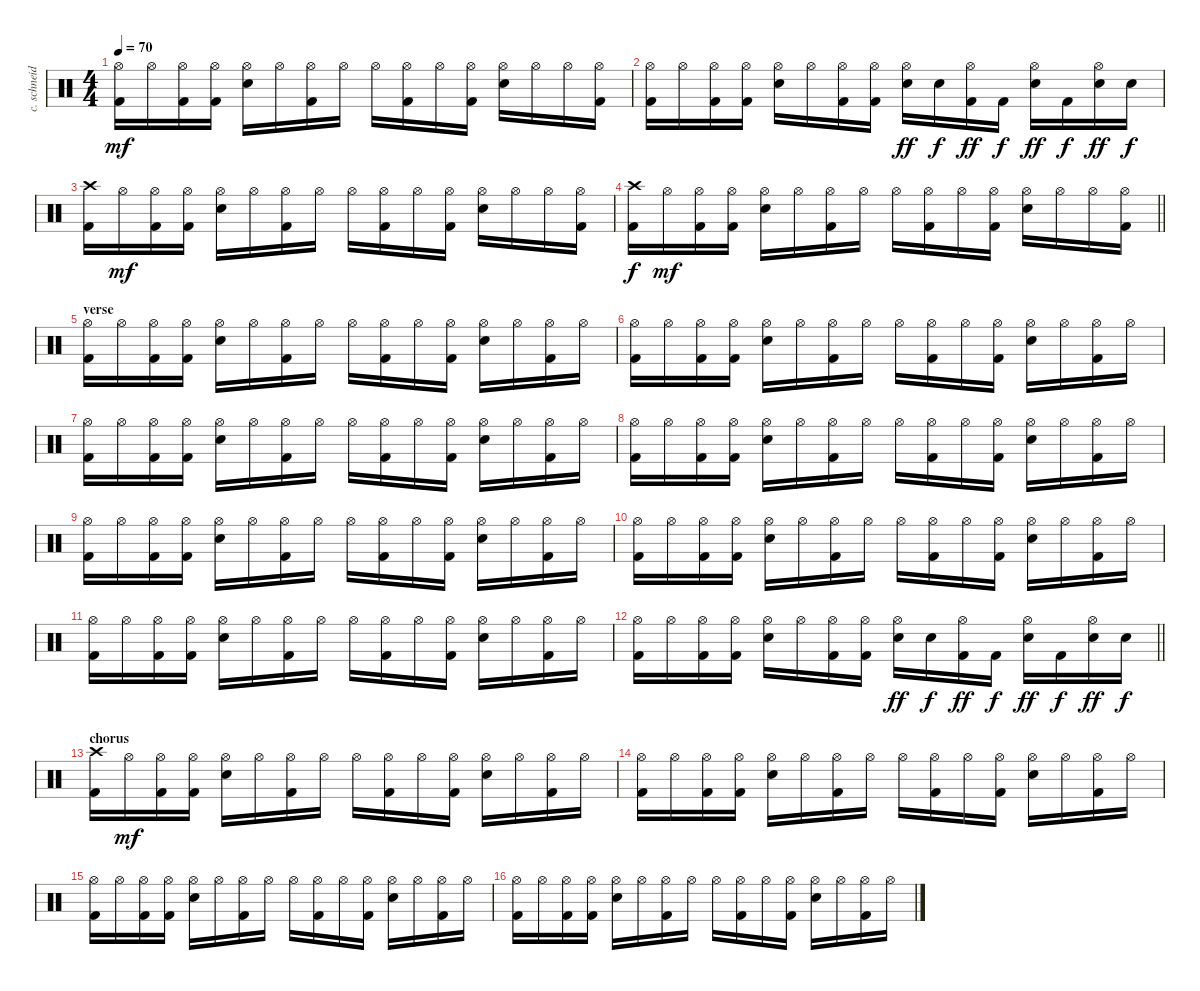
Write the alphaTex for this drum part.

\track ("c. schneider - drums" "c. schneid") {instrument percussion}
\staff {score}
\articulation defaults
\ts (4 4)
\tempo 70
\clef neutral
\ks c
("Hi-Hat (open)" "Kick (hit) 2").16{dy mf} "Hi-Hat (open)".16 ("Hi-Hat (open)" "Kick (hit) 2").16 ("Hi-Hat (open)" "Kick (hit) 2").16 ("Hi-Hat (open)" "Electric Snare (hit)").16 "Hi-Hat (open)".16 ("Hi-Hat (open)" "Kick (hit) 2").16 "Hi-Hat (open)".16 "Hi-Hat (open)".16 ("Hi-Hat (open)" "Kick (hit) 2").16 "Hi-Hat (open)".16 ("Hi-Hat (open)" "Kick (hit) 2").16 ("Hi-Hat (open)" "Electric Snare (hit)").16 "Hi-Hat (open)".16 "Hi-Hat (open)".16 ("Hi-Hat (open)" "Kick (hit) 2").16 |
("Hi-Hat (open)" "Kick (hit) 2").16 "Hi-Hat (open)".16 ("Hi-Hat (open)" "Kick (hit) 2").16 ("Hi-Hat (open)" "Kick (hit) 2").16 ("Hi-Hat (open)" "Electric Snare (hit)").16 "Hi-Hat (open)".16 ("Hi-Hat (open)" "Kick (hit) 2").16 ("Hi-Hat (open)" "Kick (hit) 2").16 ("Hi-Hat (open)" "Electric Snare (hit)").16{dy ff} "Electric Snare (hit)".16{dy f} ("Hi-Hat (open)" "Kick (hit) 2").16{dy ff} "Kick (hit) 2".16{dy f} ("Hi-Hat (open)" "Electric Snare (hit)").16{dy ff} "Kick (hit) 2".16{dy f} ("Hi-Hat (open)" "Electric Snare (hit)").16{dy ff} "Electric Snare (hit)".16{dy f} |
("Crash high (hit)" "Kick (hit) 2").16 "Hi-Hat (open)".16{dy mf} ("Hi-Hat (open)" "Kick (hit) 2").16 ("Hi-Hat (open)" "Kick (hit) 2").16 ("Hi-Hat (open)" "Electric Snare (hit)").16 "Hi-Hat (open)".16 ("Hi-Hat (open)" "Kick (hit) 2").16 "Hi-Hat (open)".16 "Hi-Hat (open)".16 ("Hi-Hat (open)" "Kick (hit) 2").16 "Hi-Hat (open)".16 ("Hi-Hat (open)" "Kick (hit) 2").16 ("Hi-Hat (open)" "Electric Snare (hit)").16 "Hi-Hat (open)".16 "Hi-Hat (open)".16 ("Hi-Hat (open)" "Kick (hit) 2").16 |
\barLineRight lightlight
("Crash high (hit)" "Kick (hit) 2").16{dy f} "Hi-Hat (open)".16{dy mf} ("Hi-Hat (open)" "Kick (hit) 2").16 ("Hi-Hat (open)" "Kick (hit) 2").16 ("Hi-Hat (open)" "Electric Snare (hit)").16 "Hi-Hat (open)".16 ("Hi-Hat (open)" "Kick (hit) 2").16 "Hi-Hat (open)".16 "Hi-Hat (open)".16 ("Hi-Hat (open)" "Kick (hit) 2").16 "Hi-Hat (open)".16 ("Hi-Hat (open)" "Kick (hit) 2").16 ("Hi-Hat (open)" "Electric Snare (hit)").16 "Hi-Hat (open)".16 "Hi-Hat (open)".16 ("Hi-Hat (open)" "Kick (hit) 2").16 |
\section ("" "verse")
("Hi-Hat (open)" "Kick (hit) 2").16 "Hi-Hat (open)".16 ("Hi-Hat (open)" "Kick (hit) 2").16 ("Hi-Hat (open)" "Kick (hit) 2").16 ("Hi-Hat (open)" "Electric Snare (hit)").16 "Hi-Hat (open)".16 ("Hi-Hat (open)" "Kick (hit) 2").16 "Hi-Hat (open)".16 "Hi-Hat (open)".16 ("Hi-Hat (open)" "Kick (hit) 2").16 "Hi-Hat (open)".16 ("Hi-Hat (open)" "Kick (hit) 2").16 ("Hi-Hat (open)" "Electric Snare (hit)").16 "Hi-Hat (open)".16 ("Hi-Hat (open)" "Kick (hit) 2").16 "Hi-Hat (open)".16 |
("Hi-Hat (open)" "Kick (hit) 2").16 "Hi-Hat (open)".16 ("Hi-Hat (open)" "Kick (hit) 2").16 ("Hi-Hat (open)" "Kick (hit) 2").16 ("Hi-Hat (open)" "Electric Snare (hit)").16 "Hi-Hat (open)".16 ("Hi-Hat (open)" "Kick (hit) 2").16 "Hi-Hat (open)".16 "Hi-Hat (open)".16 ("Hi-Hat (open)" "Kick (hit) 2").16 "Hi-Hat (open)".16 ("Hi-Hat (open)" "Kick (hit) 2").16 ("Hi-Hat (open)" "Electric Snare (hit)").16 "Hi-Hat (open)".16 ("Hi-Hat (open)" "Kick (hit) 2").16 "Hi-Hat (open)".16 |
("Hi-Hat (open)" "Kick (hit) 2").16 "Hi-Hat (open)".16 ("Hi-Hat (open)" "Kick (hit) 2").16 ("Hi-Hat (open)" "Kick (hit) 2").16 ("Hi-Hat (open)" "Electric Snare (hit)").16 "Hi-Hat (open)".16 ("Hi-Hat (open)" "Kick (hit) 2").16 "Hi-Hat (open)".16 "Hi-Hat (open)".16 ("Hi-Hat (open)" "Kick (hit) 2").16 "Hi-Hat (open)".16 ("Hi-Hat (open)" "Kick (hit) 2").16 ("Hi-Hat (open)" "Electric Snare (hit)").16 "Hi-Hat (open)".16 ("Hi-Hat (open)" "Kick (hit) 2").16 "Hi-Hat (open)".16 |
("Hi-Hat (open)" "Kick (hit) 2").16 "Hi-Hat (open)".16 ("Hi-Hat (open)" "Kick (hit) 2").16 ("Hi-Hat (open)" "Kick (hit) 2").16 ("Hi-Hat (open)" "Electric Snare (hit)").16 "Hi-Hat (open)".16 ("Hi-Hat (open)" "Kick (hit) 2").16 "Hi-Hat (open)".16 "Hi-Hat (open)".16 ("Hi-Hat (open)" "Kick (hit) 2").16 "Hi-Hat (open)".16 ("Hi-Hat (open)" "Kick (hit) 2").16 ("Hi-Hat (open)" "Electric Snare (hit)").16 "Hi-Hat (open)".16 ("Hi-Hat (open)" "Kick (hit) 2").16 "Hi-Hat (open)".16 |
("Hi-Hat (open)" "Kick (hit) 2").16 "Hi-Hat (open)".16 ("Hi-Hat (open)" "Kick (hit) 2").16 ("Hi-Hat (open)" "Kick (hit) 2").16 ("Hi-Hat (open)" "Electric Snare (hit)").16 "Hi-Hat (open)".16 ("Hi-Hat (open)" "Kick (hit) 2").16 "Hi-Hat (open)".16 "Hi-Hat (open)".16 ("Hi-Hat (open)" "Kick (hit) 2").16 "Hi-Hat (open)".16 ("Hi-Hat (open)" "Kick (hit) 2").16 ("Hi-Hat (open)" "Electric Snare (hit)").16 "Hi-Hat (open)".16 ("Hi-Hat (open)" "Kick (hit) 2").16 "Hi-Hat (open)".16 |
("Hi-Hat (open)" "Kick (hit) 2").16 "Hi-Hat (open)".16 ("Hi-Hat (open)" "Kick (hit) 2").16 ("Hi-Hat (open)" "Kick (hit) 2").16 ("Hi-Hat (open)" "Electric Snare (hit)").16 "Hi-Hat (open)".16 ("Hi-Hat (open)" "Kick (hit) 2").16 "Hi-Hat (open)".16 "Hi-Hat (open)".16 ("Hi-Hat (open)" "Kick (hit) 2").16 "Hi-Hat (open)".16 ("Hi-Hat (open)" "Kick (hit) 2").16 ("Hi-Hat (open)" "Electric Snare (hit)").16 "Hi-Hat (open)".16 ("Hi-Hat (open)" "Kick (hit) 2").16 "Hi-Hat (open)".16 |
("Hi-Hat (open)" "Kick (hit) 2").16 "Hi-Hat (open)".16 ("Hi-Hat (open)" "Kick (hit) 2").16 ("Hi-Hat (open)" "Kick (hit) 2").16 ("Hi-Hat (open)" "Electric Snare (hit)").16 "Hi-Hat (open)".16 ("Hi-Hat (open)" "Kick (hit) 2").16 "Hi-Hat (open)".16 "Hi-Hat (open)".16 ("Hi-Hat (open)" "Kick (hit) 2").16 "Hi-Hat (open)".16 ("Hi-Hat (open)" "Kick (hit) 2").16 ("Hi-Hat (open)" "Electric Snare (hit)").16 "Hi-Hat (open)".16 ("Hi-Hat (open)" "Kick (hit) 2").16 "Hi-Hat (open)".16 |
\barLineRight lightlight
("Hi-Hat (open)" "Kick (hit) 2").16 "Hi-Hat (open)".16 ("Hi-Hat (open)" "Kick (hit) 2").16 ("Hi-Hat (open)" "Kick (hit) 2").16 ("Hi-Hat (open)" "Electric Snare (hit)").16 "Hi-Hat (open)".16 ("Hi-Hat (open)" "Kick (hit) 2").16 ("Hi-Hat (open)" "Kick (hit) 2").16 ("Hi-Hat (open)" "Electric Snare (hit)").16{dy ff} "Electric Snare (hit)".16{dy f} ("Hi-Hat (open)" "Kick (hit) 2").16{dy ff} "Kick (hit) 2".16{dy f} ("Hi-Hat (open)" "Electric Snare (hit)").16{dy ff} "Kick (hit) 2".16{dy f} ("Hi-Hat (open)" "Electric Snare (hit)").16{dy ff} "Electric Snare (hit)".16{dy f} |
\section ("" "chorus")
("Crash high (hit)" "Kick (hit) 2").16 "Hi-Hat (open)".16{dy mf} ("Hi-Hat (open)" "Kick (hit) 2").16 ("Hi-Hat (open)" "Kick (hit) 2").16 ("Hi-Hat (open)" "Electric Snare (hit)").16 "Hi-Hat (open)".16 ("Hi-Hat (open)" "Kick (hit) 2").16 "Hi-Hat (open)".16 "Hi-Hat (open)".16 ("Hi-Hat (open)" "Kick (hit) 2").16 "Hi-Hat (open)".16 ("Hi-Hat (open)" "Kick (hit) 2").16 ("Hi-Hat (open)" "Electric Snare (hit)").16 "Hi-Hat (open)".16 ("Hi-Hat (open)" "Kick (hit) 2").16 "Hi-Hat (open)".16 |
("Hi-Hat (open)" "Kick (hit) 2").16 "Hi-Hat (open)".16 ("Hi-Hat (open)" "Kick (hit) 2").16 ("Hi-Hat (open)" "Kick (hit) 2").16 ("Hi-Hat (open)" "Electric Snare (hit)").16 "Hi-Hat (open)".16 ("Hi-Hat (open)" "Kick (hit) 2").16 "Hi-Hat (open)".16 "Hi-Hat (open)".16 ("Hi-Hat (open)" "Kick (hit) 2").16 "Hi-Hat (open)".16 ("Hi-Hat (open)" "Kick (hit) 2").16 ("Hi-Hat (open)" "Electric Snare (hit)").16 "Hi-Hat (open)".16 ("Hi-Hat (open)" "Kick (hit) 2").16 "Hi-Hat (open)".16 |
("Hi-Hat (open)" "Kick (hit) 2").16 "Hi-Hat (open)".16 ("Hi-Hat (open)" "Kick (hit) 2").16 ("Hi-Hat (open)" "Kick (hit) 2").16 ("Hi-Hat (open)" "Electric Snare (hit)").16 "Hi-Hat (open)".16 ("Hi-Hat (open)" "Kick (hit) 2").16 "Hi-Hat (open)".16 "Hi-Hat (open)".16 ("Hi-Hat (open)" "Kick (hit) 2").16 "Hi-Hat (open)".16 ("Hi-Hat (open)" "Kick (hit) 2").16 ("Hi-Hat (open)" "Electric Snare (hit)").16 "Hi-Hat (open)".16 ("Hi-Hat (open)" "Kick (hit) 2").16 "Hi-Hat (open)".16 |
("Hi-Hat (open)" "Kick (hit) 2").16 "Hi-Hat (open)".16 ("Hi-Hat (open)" "Kick (hit) 2").16 ("Hi-Hat (open)" "Kick (hit) 2").16 ("Hi-Hat (open)" "Electric Snare (hit)").16 "Hi-Hat (open)".16 ("Hi-Hat (open)" "Kick (hit) 2").16 "Hi-Hat (open)".16 "Hi-Hat (open)".16 ("Hi-Hat (open)" "Kick (hit) 2").16 "Hi-Hat (open)".16 ("Hi-Hat (open)" "Kick (hit) 2").16 ("Hi-Hat (open)" "Electric Snare (hit)").16 "Hi-Hat (open)".16 ("Hi-Hat (open)" "Kick (hit) 2").16 "Hi-Hat (open)".16
